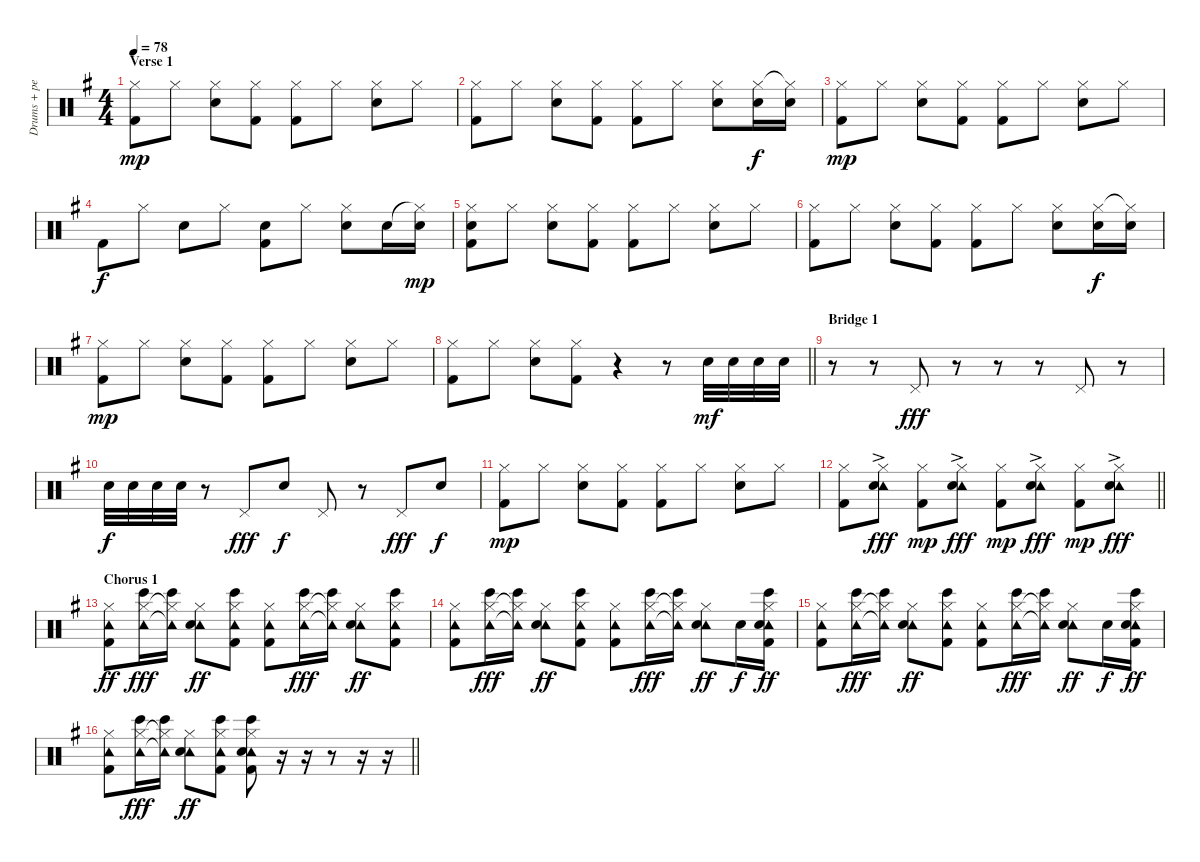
\track ("Drums + percussion" "Drums + pe") {instrument percussion}
\staff {score}
\articulation defaults
\ts (4 4)
\section ("" "Verse 1")
\tempo 78
\clef neutral
\ks g
("Hi-Hat (closed)" "Kick (hit) 2").8{dy mp} "Hi-Hat (closed)".8 ("Hi-Hat (closed)" "Snare (hit) 2").8 ("Hi-Hat (closed)" "Kick (hit) 2").8 ("Hi-Hat (closed)" "Kick (hit) 2").8 "Hi-Hat (closed)".8 ("Hi-Hat (closed)" "Snare (hit) 2").8 "Hi-Hat (closed)".8 |
("Hi-Hat (closed)" "Kick (hit) 2").8 "Hi-Hat (closed)".8 ("Hi-Hat (closed)" "Snare (hit) 2").8 ("Hi-Hat (closed)" "Kick (hit) 2").8 ("Hi-Hat (closed)" "Kick (hit) 2").8 "Hi-Hat (closed)".8 ("Hi-Hat (closed)" "Snare (hit) 2").8 ("Hi-Hat (closed)" "Snare (hit) 2").16{dy f} ("Hi-Hat (closed)"{t} "Snare (hit) 2").16 |
("Hi-Hat (closed)" "Kick (hit) 2").8{dy mp} "Hi-Hat (closed)".8 ("Hi-Hat (closed)" "Snare (hit) 2").8 ("Hi-Hat (closed)" "Kick (hit) 2").8 ("Hi-Hat (closed)" "Kick (hit) 2").8 "Hi-Hat (closed)".8 ("Hi-Hat (closed)" "Snare (hit) 2").8 "Hi-Hat (closed)".8 |
"Kick (hit) 2".8{dy f} "Hi-Hat (closed)".8 "Snare (hit) 2".8 "Hi-Hat (closed)".8 ("Snare (hit) 2" "Kick (hit) 2").8 "Hi-Hat (closed)".8 ("Hi-Hat (closed)" "Snare (hit) 2").8 "Snare (hit) 2".16 ("Hi-Hat (closed)"{t} "Snare (hit) 2").16{dy mp} |
("Hi-Hat (closed)" "Snare (hit) 2" "Kick (hit) 2").8 "Hi-Hat (closed)".8 ("Hi-Hat (closed)" "Snare (hit) 2").8 ("Hi-Hat (closed)" "Kick (hit) 2").8 ("Hi-Hat (closed)" "Kick (hit) 2").8 "Hi-Hat (closed)".8 ("Hi-Hat (closed)" "Snare (hit) 2").8 "Hi-Hat (closed)".8 |
("Hi-Hat (closed)" "Kick (hit) 2").8 "Hi-Hat (closed)".8 ("Hi-Hat (closed)" "Snare (hit) 2").8 ("Hi-Hat (closed)" "Kick (hit) 2").8 ("Hi-Hat (closed)" "Kick (hit) 2").8 "Hi-Hat (closed)".8 ("Hi-Hat (closed)" "Snare (hit) 2").8 ("Hi-Hat (closed)" "Snare (hit) 2").16{dy f} ("Hi-Hat (closed)"{t} "Snare (hit) 2").16 |
("Hi-Hat (closed)" "Kick (hit) 2").8{dy mp} "Hi-Hat (closed)".8 ("Hi-Hat (closed)" "Snare (hit) 2").8 ("Hi-Hat (closed)" "Kick (hit) 2").8 ("Hi-Hat (closed)" "Kick (hit) 2").8 "Hi-Hat (closed)".8 ("Hi-Hat (closed)" "Snare (hit) 2").8 "Hi-Hat (closed)".8 |
\barLineRight lightlight
("Hi-Hat (closed)" "Kick (hit) 2").8 "Hi-Hat (closed)".8 ("Hi-Hat (closed)" "Snare (hit) 2").8 ("Hi-Hat (closed)" "Kick (hit) 2").8 r.4 r.8 "Snare (hit) 2".32{dy mf} "Snare (hit) 2".32 "Snare (hit) 2".32 "Snare (hit) 2".32 |
\section ("" "Bridge 1")
r.8 r.8 "Pedal Hi-Hat (hit)".8{dy fff} r.8 r.8 r.8 "Pedal Hi-Hat (hit)".8 r.8 |
"Snare (hit) 2".32{dy f} "Snare (hit) 2".32 "Snare (hit) 2".32 "Snare (hit) 2".32 r.8 "Pedal Hi-Hat (hit)".8{dy fff} "Snare (hit) 2".8{dy f} "Pedal Hi-Hat (hit)".8 r.8 "Pedal Hi-Hat (hit)".8{dy fff} "Snare (hit) 2".8{dy f} |
("Hi-Hat (closed)" "Kick (hit) 2").8{dy mp} "Hi-Hat (closed)".8 ("Hi-Hat (closed)" "Snare (hit) 2").8 ("Hi-Hat (closed)" "Kick (hit) 2").8 ("Hi-Hat (closed)" "Kick (hit) 2").8 "Hi-Hat (closed)".8 ("Hi-Hat (closed)" "Snare (hit) 2").8 "Hi-Hat (closed)".8 |
\barLineRight lightlight
("Hi-Hat (closed)" "Kick (hit) 2").8 ("Hi-Hat (closed)"{ac} "Tambourine (hit)"{ac} "Snare (hit) 2").8{dy fff} ("Hi-Hat (closed)" "Kick (hit) 2").8{dy mp} ("Hi-Hat (closed)"{ac} "Tambourine (hit)"{ac} "Snare (hit) 2").8{dy fff} ("Hi-Hat (closed)" "Kick (hit) 2").8{dy mp} ("Hi-Hat (closed)"{ac} "Tambourine (hit)"{ac} "Snare (hit) 2").8{dy fff} ("Hi-Hat (closed)" "Kick (hit) 2").8{dy mp} ("Hi-Hat (closed)"{ac} "Tambourine (hit)"{ac} "Snare (hit) 2").8{dy fff} |
\section ("" "Chorus 1")
("Tambourine (hit)" "Hi-Hat (closed)" "Kick (hit) 2").8{dy ff} ("Tambourine (hit)" "Hi-Hat (closed)" "Bongo High (hit)").16{dy fff} ("Tambourine (hit)"{t} "Hi-Hat (closed)"{t} "Bongo High (hit)").16 ("Tambourine (hit)" "Hi-Hat (closed)" "Snare (hit) 2").8{dy ff} ("Tambourine (hit)" "Hi-Hat (closed)" "Bongo High (hit)" "Kick (hit) 2").8 ("Tambourine (hit)" "Hi-Hat (closed)" "Kick (hit) 2").8 ("Tambourine (hit)" "Hi-Hat (closed)" "Bongo High (hit)").16{dy fff} ("Tambourine (hit)"{t} "Hi-Hat (closed)"{t} "Bongo High (hit)").16 ("Tambourine (hit)" "Hi-Hat (closed)" "Snare (hit) 2").8{dy ff} ("Tambourine (hit)" "Hi-Hat (closed)" "Bongo High (hit)" "Kick (hit) 2").8 |
("Tambourine (hit)" "Hi-Hat (closed)" "Kick (hit) 2").8 ("Tambourine (hit)" "Hi-Hat (closed)" "Bongo High (hit)").16{dy fff} ("Tambourine (hit)"{t} "Hi-Hat (closed)"{t} "Bongo High (hit)").16 ("Tambourine (hit)" "Hi-Hat (closed)" "Snare (hit) 2").8{dy ff} ("Tambourine (hit)" "Hi-Hat (closed)" "Bongo High (hit)" "Kick (hit) 2").8 ("Tambourine (hit)" "Hi-Hat (closed)" "Kick (hit) 2").8 ("Tambourine (hit)" "Hi-Hat (closed)" "Bongo High (hit)").16{dy fff} ("Tambourine (hit)"{t} "Hi-Hat (closed)"{t} "Bongo High (hit)").16 ("Tambourine (hit)" "Hi-Hat (closed)" "Snare (hit) 2").8{dy ff} "Snare (hit) 2".16{dy f} ("Tambourine (hit)" "Hi-Hat (closed)" "Bongo High (hit)" "Snare (hit) 2" "Kick (hit) 2").16{dy ff} |
("Tambourine (hit)" "Hi-Hat (closed)" "Kick (hit) 2").8 ("Tambourine (hit)" "Hi-Hat (closed)" "Bongo High (hit)").16{dy fff} ("Tambourine (hit)"{t} "Hi-Hat (closed)"{t} "Bongo High (hit)").16 ("Tambourine (hit)" "Hi-Hat (closed)" "Snare (hit) 2").8{dy ff} ("Tambourine (hit)" "Hi-Hat (closed)" "Bongo High (hit)" "Kick (hit) 2").8 ("Tambourine (hit)" "Hi-Hat (closed)" "Kick (hit) 2").8 ("Tambourine (hit)" "Hi-Hat (closed)" "Bongo High (hit)").16{dy fff} ("Tambourine (hit)"{t} "Hi-Hat (closed)"{t} "Bongo High (hit)").16 ("Tambourine (hit)" "Hi-Hat (closed)" "Snare (hit) 2").8{dy ff} "Snare (hit) 2".16{dy f} ("Tambourine (hit)" "Hi-Hat (closed)" "Bongo High (hit)" "Snare (hit) 2" "Kick (hit) 2").16{dy ff} |
\barLineRight lightlight
("Tambourine (hit)" "Hi-Hat (closed)" "Kick (hit) 2").8 ("Tambourine (hit)" "Hi-Hat (closed)" "Bongo High (hit)").16{dy fff} ("Tambourine (hit)"{t} "Hi-Hat (closed)"{t} "Bongo High (hit)").16 ("Tambourine (hit)" "Hi-Hat (closed)" "Snare (hit) 2").8{dy ff} ("Tambourine (hit)" "Hi-Hat (closed)" "Bongo High (hit)" "Kick (hit) 2").8 ("Tambourine (hit)" "Hi-Hat (closed)" "Bongo High (hit)" "Snare (hit) 2" "Kick (hit) 2").8 r.16 r.16 r.8 r.16 r.16
